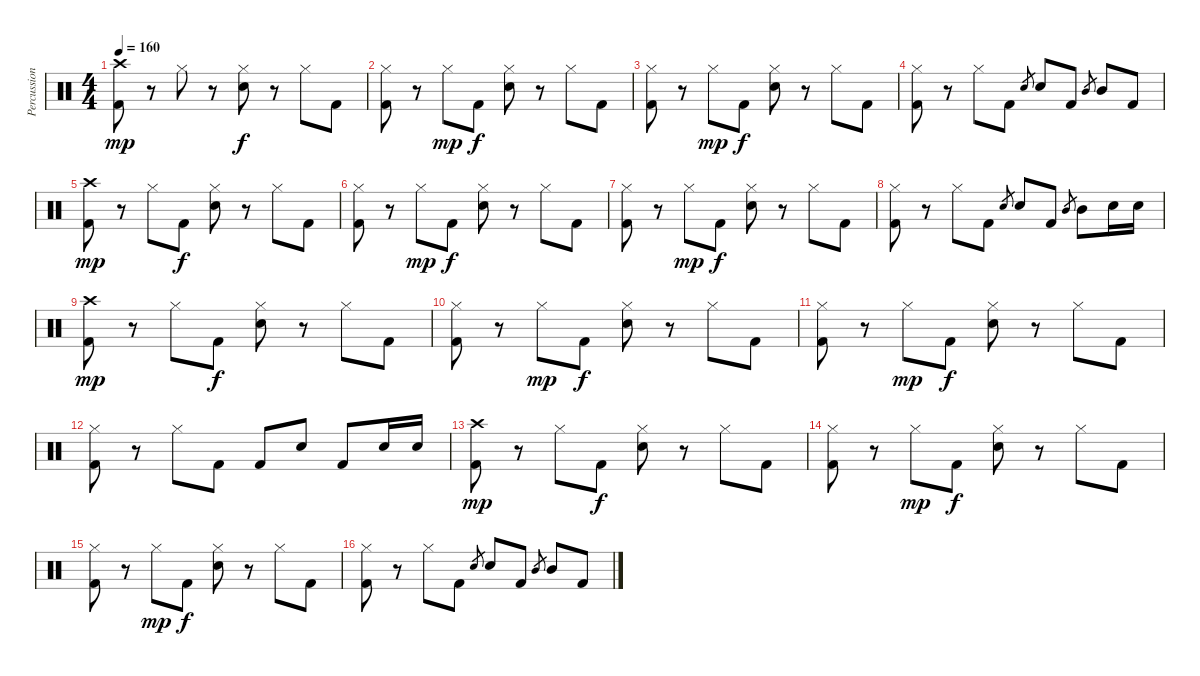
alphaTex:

\track ("Percussion" "Percussion") {instrument percussion}
\staff {score}
\articulation defaults
\ts (4 4)
\tempo 160
\clef neutral
\ks c
("Crash high (hit)" "Kick (hit) 2").8{dy mp} r.8 "Hi-Hat (closed)".8 r.8 ("Hi-Hat (closed)" "Electric Snare (hit)").8{dy f} r.8 "Hi-Hat (closed)".8 "Kick (hit) 2".8 |
("Hi-Hat (closed)" "Kick (hit) 2").8 r.8 "Hi-Hat (closed)".8{dy mp} "Kick (hit) 2".8{dy f} ("Hi-Hat (closed)" "Electric Snare (hit)").8 r.8 "Hi-Hat (closed)".8 "Kick (hit) 2".8 |
("Hi-Hat (closed)" "Kick (hit) 2").8 r.8 "Hi-Hat (closed)".8{dy mp} "Kick (hit) 2".8{dy f} ("Hi-Hat (closed)" "Electric Snare (hit)").8 r.8 "Hi-Hat (closed)".8 "Kick (hit) 2".8 |
("Hi-Hat (closed)" "Kick (hit) 2").8 r.8 "Hi-Hat (closed)".8 "Kick (hit) 2".8 "Electric Snare (hit)".8{gr} "Electric Snare (hit)".8 "Kick (hit) 2".8 "Mid Tom (hit)".8{gr} "Mid Tom (hit)".8 "Kick (hit) 2".8 |
("Crash high (hit)" "Kick (hit) 2").8{dy mp} r.8 "Hi-Hat (closed)".8 "Kick (hit) 2".8{dy f} ("Hi-Hat (closed)" "Electric Snare (hit)").8 r.8 "Hi-Hat (closed)".8 "Kick (hit) 2".8 |
("Hi-Hat (closed)" "Kick (hit) 2").8 r.8 "Hi-Hat (closed)".8{dy mp} "Kick (hit) 2".8{dy f} ("Hi-Hat (closed)" "Electric Snare (hit)").8 r.8 "Hi-Hat (closed)".8 "Kick (hit) 2".8 |
("Hi-Hat (closed)" "Kick (hit) 2").8 r.8 "Hi-Hat (closed)".8{dy mp} "Kick (hit) 2".8{dy f} ("Hi-Hat (closed)" "Electric Snare (hit)").8 r.8 "Hi-Hat (closed)".8 "Kick (hit) 2".8 |
("Hi-Hat (closed)" "Kick (hit) 2").8 r.8 "Hi-Hat (closed)".8 "Kick (hit) 2".8 "Electric Snare (hit)".8{gr} "Electric Snare (hit)".8 "Kick (hit) 2".8 "Mid Tom (hit)".8{gr} "Mid Tom (hit)".8 "Electric Snare (hit)".16 "Electric Snare (hit)".16 |
("Crash high (hit)" "Kick (hit) 2").8{dy mp} r.8 "Hi-Hat (closed)".8 "Kick (hit) 2".8{dy f} ("Hi-Hat (closed)" "Electric Snare (hit)").8 r.8 "Hi-Hat (closed)".8 "Kick (hit) 2".8 |
("Hi-Hat (closed)" "Kick (hit) 2").8 r.8 "Hi-Hat (closed)".8{dy mp} "Kick (hit) 2".8{dy f} ("Hi-Hat (closed)" "Electric Snare (hit)").8 r.8 "Hi-Hat (closed)".8 "Kick (hit) 2".8 |
("Hi-Hat (closed)" "Kick (hit) 2").8 r.8 "Hi-Hat (closed)".8{dy mp} "Kick (hit) 2".8{dy f} ("Hi-Hat (closed)" "Electric Snare (hit)").8 r.8 "Hi-Hat (closed)".8 "Kick (hit) 2".8 |
("Hi-Hat (closed)" "Kick (hit) 2").8 r.8 "Hi-Hat (closed)".8 "Kick (hit) 2".8 "Kick (hit) 2".8 "Electric Snare (hit)".8 "Kick (hit) 2".8 "Electric Snare (hit)".16 "Electric Snare (hit)".16 |
("Crash high (hit)" "Kick (hit) 2").8{dy mp} r.8 "Hi-Hat (closed)".8 "Kick (hit) 2".8{dy f} ("Hi-Hat (closed)" "Electric Snare (hit)").8 r.8 "Hi-Hat (closed)".8 "Kick (hit) 2".8 |
("Hi-Hat (closed)" "Kick (hit) 2").8 r.8 "Hi-Hat (closed)".8{dy mp} "Kick (hit) 2".8{dy f} ("Hi-Hat (closed)" "Electric Snare (hit)").8 r.8 "Hi-Hat (closed)".8 "Kick (hit) 2".8 |
("Hi-Hat (closed)" "Kick (hit) 2").8 r.8 "Hi-Hat (closed)".8{dy mp} "Kick (hit) 2".8{dy f} ("Hi-Hat (closed)" "Electric Snare (hit)").8 r.8 "Hi-Hat (closed)".8 "Kick (hit) 2".8 |
("Hi-Hat (closed)" "Kick (hit) 2").8 r.8 "Hi-Hat (closed)".8 "Kick (hit) 2".8 "Electric Snare (hit)".8{gr} "Electric Snare (hit)".8 "Kick (hit) 2".8 "Mid Tom (hit)".8{gr} "Mid Tom (hit)".8 "Kick (hit) 2".8
